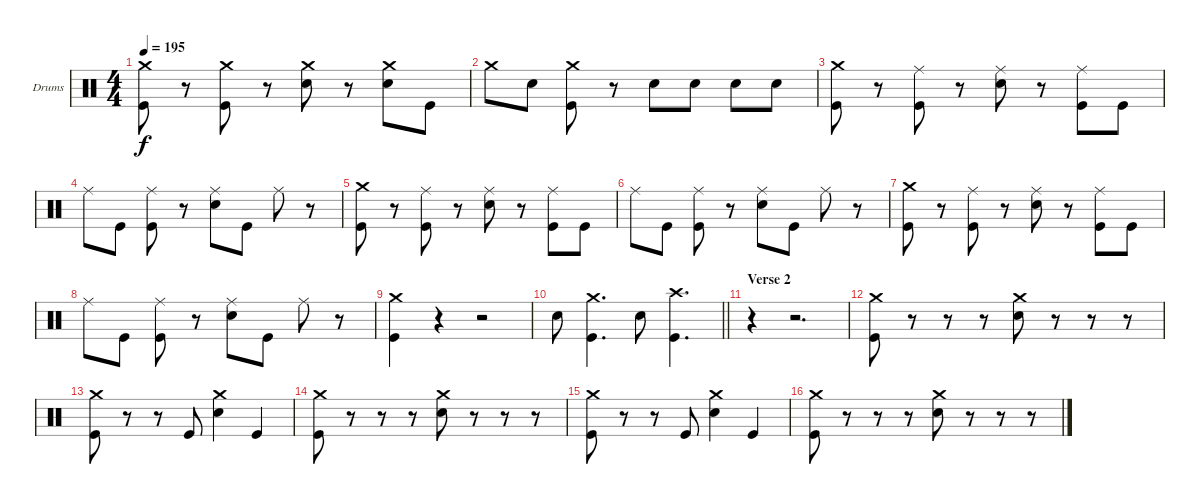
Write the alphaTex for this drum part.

\bracketExtendMode groupsimilarinstruments
\firstSystemTrackNameOrientation horizontal
\otherSystemsTrackNameOrientation horizontal
\track ("Drumkit" "Drums") {instrument percussion}
\staff {score}
\articulation defaults
\ts (4 4)
\tempo 195
\clef neutral
\ks c
("Crash medium (hit)" "Kick (hit)").8{dy f} r.8 ("Crash medium (hit)" "Kick (hit)").8 r.8 ("Crash medium (hit)" "Snare (hit) 2").8 r.8 ("Crash medium (hit)" "Snare (hit) 2").8 "Kick (hit)".8 |
"Crash medium (hit)".8 "Snare (hit) 2".8 ("Crash medium (hit)" "Kick (hit)").8 r.8 "Snare (hit) 2".8 "Snare (hit) 2".8 "Snare (hit) 2".8 "Snare (hit) 2".8 |
("Crash medium (hit)" "Kick (hit)").8 r.8 ("Ride (middle)" "Kick (hit)").8 r.8 ("Ride (middle)" "Snare (hit) 2").8 r.8 ("Ride (middle)" "Kick (hit)").8 "Kick (hit)".8 |
"Ride (middle)".8 "Kick (hit)".8 ("Ride (middle)" "Kick (hit)").8 r.8 ("Ride (middle)" "Snare (hit) 2").8 "Kick (hit)".8 "Ride (middle)".8 r.8 |
("Crash medium (hit)" "Kick (hit)").8 r.8 ("Ride (middle)" "Kick (hit)").8 r.8 ("Ride (middle)" "Snare (hit) 2").8 r.8 ("Ride (middle)" "Kick (hit)").8 "Kick (hit)".8 |
"Ride (middle)".8 "Kick (hit)".8 ("Ride (middle)" "Kick (hit)").8 r.8 ("Ride (middle)" "Snare (hit) 2").8 "Kick (hit)".8 "Ride (middle)".8 r.8 |
("Crash medium (hit)" "Kick (hit)").8 r.8 ("Ride (middle)" "Kick (hit)").8 r.8 ("Ride (middle)" "Snare (hit) 2").8 r.8 ("Ride (middle)" "Kick (hit)").8 "Kick (hit)".8 |
"Ride (middle)".8 "Kick (hit)".8 ("Ride (middle)" "Kick (hit)").8 r.8 ("Ride (middle)" "Snare (hit) 2").8 "Kick (hit)".8 "Ride (middle)".8 r.8 |
("Crash medium (hit)" "Kick (hit)").4 r.4 r.2 |
\barLineRight lightlight "Snare (hit) 2".8
("Crash medium (hit)" "Kick (hit)").4{d} "Snare (hit) 2".8 ("Crash high (hit)" "Kick (hit)").4{d} |
\section ("" "Verse 2")
r.4 r.2{d} |
("Crash medium (hit)" "Kick (hit)").8 r.8 r.8 r.8 ("Crash medium (hit)" "Snare (hit) 2").8 r.8 r.8 r.8 |
("Crash medium (hit)" "Kick (hit)").8 r.8 r.8 "Kick (hit)".8 ("Crash medium (hit)" "Snare (hit) 2").4 "Kick (hit)".4 |
("Crash medium (hit)" "Kick (hit)").8 r.8 r.8 r.8 ("Crash medium (hit)" "Snare (hit) 2").8 r.8 r.8 r.8 |
("Crash medium (hit)" "Kick (hit)").8 r.8 r.8 "Kick (hit)".8 ("Crash medium (hit)" "Snare (hit) 2").4 "Kick (hit)".4 |
("Crash medium (hit)" "Kick (hit)").8 r.8 r.8 r.8 ("Crash medium (hit)" "Snare (hit) 2").8 r.8 r.8 r.8
